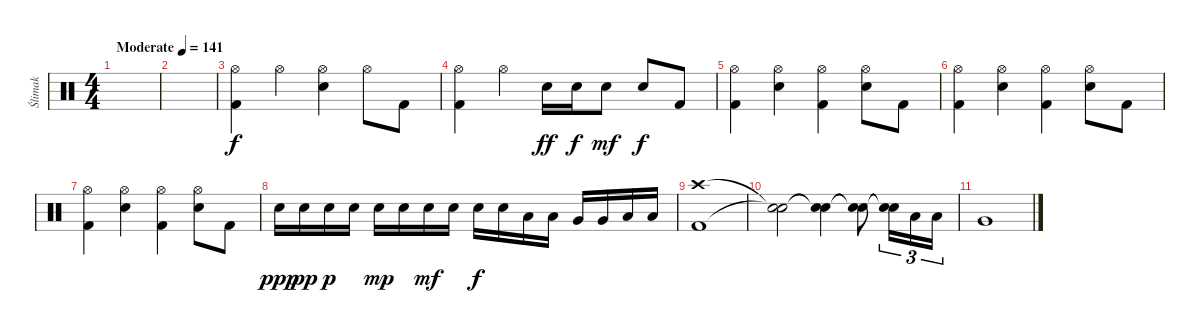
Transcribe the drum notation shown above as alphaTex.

\track ("Ślimak" "Ślimak") {instrument percussion}
\staff {score}
\articulation defaults
\ts (4 4)
\tempo (141 "Moderate")
\clef neutral
\ks c
|
|
("Kick (hit) 2" "Hi-Hat (open)").4 "Hi-Hat (open)".4 ("Hi-Hat (open)" "Electric Snare (hit)").4 "Hi-Hat (open)".8 "Kick (hit) 2".8 |
("Kick (hit) 2" "Hi-Hat (open)").4 "Hi-Hat (open)".4 "Electric Snare (hit)".16{dy ff} "Electric Snare (hit)".16{dy f} "Electric Snare (hit)".8{dy mf} "Electric Snare (hit)".8{dy f} "Kick (hit) 2".8 |
("Hi-Hat (open)" "Kick (hit) 2").4 ("Hi-Hat (open)" "Electric Snare (hit)").4 ("Hi-Hat (open)" "Kick (hit) 2").4 ("Hi-Hat (open)" "Electric Snare (hit)").8 "Kick (hit) 2".8 |
("Hi-Hat (open)" "Kick (hit) 2").4 ("Hi-Hat (open)" "Electric Snare (hit)").4 ("Hi-Hat (open)" "Kick (hit) 2").4 ("Hi-Hat (open)" "Electric Snare (hit)").8 "Kick (hit) 2".8 |
("Hi-Hat (open)" "Kick (hit) 2").4 ("Hi-Hat (open)" "Electric Snare (hit)").4 ("Hi-Hat (open)" "Kick (hit) 2").4 ("Hi-Hat (open)" "Electric Snare (hit)").8 "Kick (hit) 2".8 |
"Electric Snare (hit)".16{dy ppp} "Electric Snare (hit)".16{dy pp} "Electric Snare (hit)".16{dy p} "Electric Snare (hit)".16 "Electric Snare (hit)".16{dy mp} "Electric Snare (hit)".16 "Electric Snare (hit)".16{dy mf} "Electric Snare (hit)".16 "Electric Snare (hit)".16{dy f} "Electric Snare (hit)".16 "Low Tom (hit)".16 "Low Tom (hit)".16 "Very Low Tom (hit)".16 "Very Low Tom (hit)".16 "Low Floor Tom (hit)".16 "Low Floor Tom (hit)".16 |
("Kick (hit) 2" "Crash high (hit)").1 |
("Snare (hit)"{t} "Snare (hit)"{t}).2 ("Snare (hit)"{t} "Snare (hit)"{t}).4 ("Snare (hit)"{t} "Snare (hit)"{t}).8 ("Snare (hit)"{t} "Snare (hit)"{t}).16{tu (3 2)} "Low Tom (hit)".16{tu (3 2)} "Low Tom (hit)".16{tu (3 2)} |
"Very Low Tom (hit)".1
